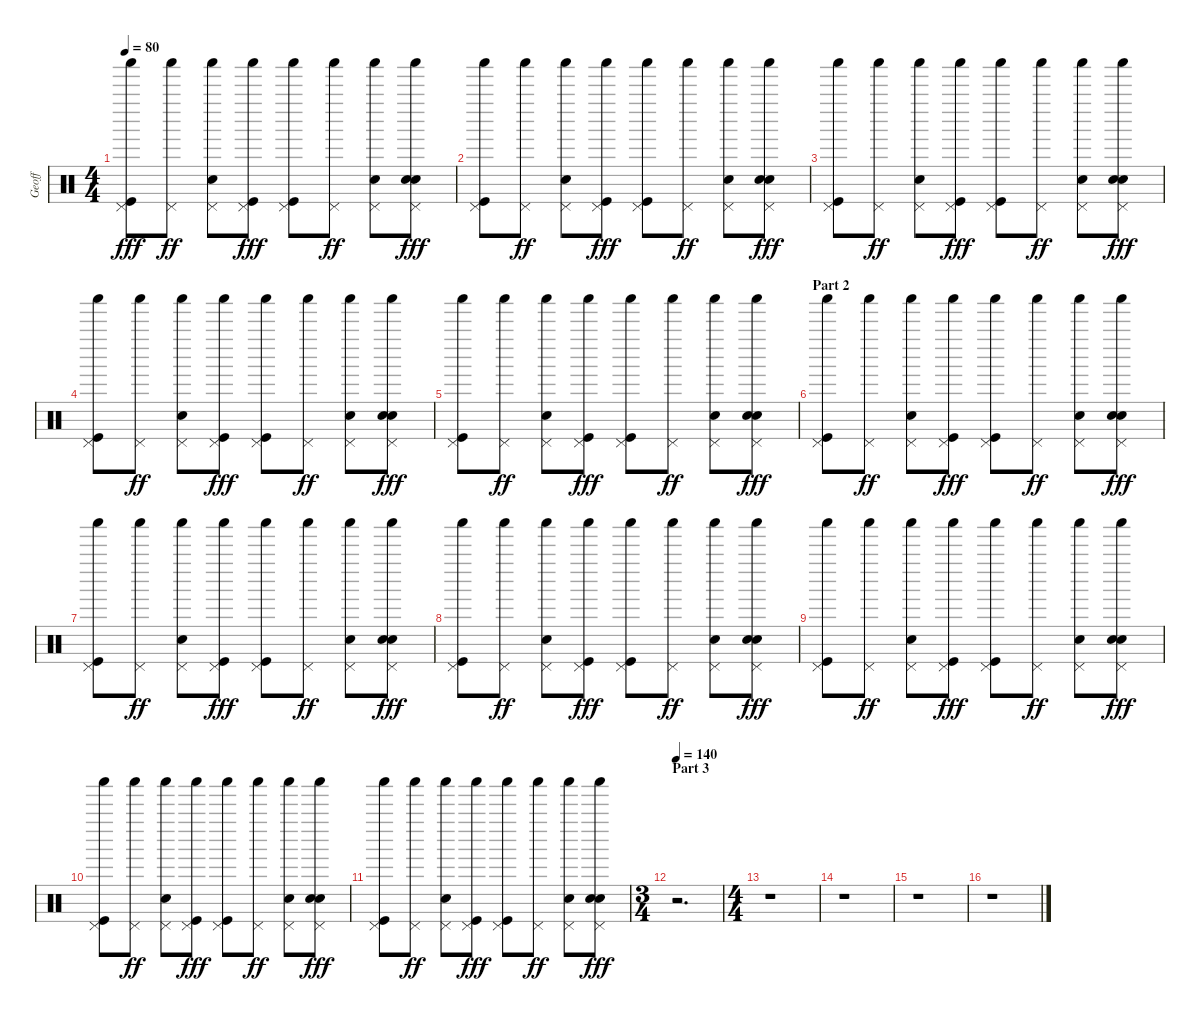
\track ("Geoff" "Geoff") {instrument percussion}
\staff {score}
\articulation defaults
\ts (4 4)
\tempo 80
\clef neutral
\ks c
("Shaker (hit)" "Pedal Hi-Hat (hit)" "Kick (hit)").8{dy fff} ("Shaker (hit)" "Pedal Hi-Hat (hit)").8{dy ff} ("Shaker (hit)" "Pedal Hi-Hat (hit)" "Snare (hit) 2").8 ("Shaker (hit)" "Pedal Hi-Hat (hit)" "Kick (hit)").8{dy fff} ("Shaker (hit)" "Pedal Hi-Hat (hit)" "Kick (hit)").8 ("Shaker (hit)" "Pedal Hi-Hat (hit)").8{dy ff} ("Shaker (hit)" "Pedal Hi-Hat (hit)" "Snare (hit) 2").8 ("Shaker (hit)" "Pedal Hi-Hat (hit)" "Hand Clap (hit)" "Hand Clap (hit)").8{dy fff} |
("Shaker (hit)" "Pedal Hi-Hat (hit)" "Kick (hit)").8 ("Shaker (hit)" "Pedal Hi-Hat (hit)").8{dy ff} ("Shaker (hit)" "Pedal Hi-Hat (hit)" "Snare (hit) 2").8 ("Shaker (hit)" "Pedal Hi-Hat (hit)" "Kick (hit)").8{dy fff} ("Shaker (hit)" "Pedal Hi-Hat (hit)" "Kick (hit)").8 ("Shaker (hit)" "Pedal Hi-Hat (hit)").8{dy ff} ("Shaker (hit)" "Pedal Hi-Hat (hit)" "Snare (hit) 2").8 ("Shaker (hit)" "Pedal Hi-Hat (hit)" "Hand Clap (hit)" "Hand Clap (hit)").8{dy fff} |
("Shaker (hit)" "Pedal Hi-Hat (hit)" "Kick (hit)").8 ("Shaker (hit)" "Pedal Hi-Hat (hit)").8{dy ff} ("Shaker (hit)" "Pedal Hi-Hat (hit)" "Snare (hit) 2").8 ("Shaker (hit)" "Pedal Hi-Hat (hit)" "Kick (hit)").8{dy fff} ("Shaker (hit)" "Pedal Hi-Hat (hit)" "Kick (hit)").8 ("Shaker (hit)" "Pedal Hi-Hat (hit)").8{dy ff} ("Shaker (hit)" "Pedal Hi-Hat (hit)" "Snare (hit) 2").8 ("Shaker (hit)" "Pedal Hi-Hat (hit)" "Hand Clap (hit)" "Hand Clap (hit)").8{dy fff} |
("Shaker (hit)" "Pedal Hi-Hat (hit)" "Kick (hit)").8 ("Shaker (hit)" "Pedal Hi-Hat (hit)").8{dy ff} ("Shaker (hit)" "Pedal Hi-Hat (hit)" "Snare (hit) 2").8 ("Shaker (hit)" "Pedal Hi-Hat (hit)" "Kick (hit)").8{dy fff} ("Shaker (hit)" "Pedal Hi-Hat (hit)" "Kick (hit)").8 ("Shaker (hit)" "Pedal Hi-Hat (hit)").8{dy ff} ("Shaker (hit)" "Pedal Hi-Hat (hit)" "Snare (hit) 2").8 ("Shaker (hit)" "Pedal Hi-Hat (hit)" "Hand Clap (hit)" "Hand Clap (hit)").8{dy fff} |
("Shaker (hit)" "Pedal Hi-Hat (hit)" "Kick (hit)").8 ("Shaker (hit)" "Pedal Hi-Hat (hit)").8{dy ff} ("Shaker (hit)" "Pedal Hi-Hat (hit)" "Snare (hit) 2").8 ("Shaker (hit)" "Pedal Hi-Hat (hit)" "Kick (hit)").8{dy fff} ("Shaker (hit)" "Pedal Hi-Hat (hit)" "Kick (hit)").8 ("Shaker (hit)" "Pedal Hi-Hat (hit)").8{dy ff} ("Shaker (hit)" "Pedal Hi-Hat (hit)" "Snare (hit) 2").8 ("Shaker (hit)" "Pedal Hi-Hat (hit)" "Hand Clap (hit)" "Hand Clap (hit)").8{dy fff} |
\section ("" "Part 2")
("Shaker (hit)" "Pedal Hi-Hat (hit)" "Kick (hit)").8 ("Shaker (hit)" "Pedal Hi-Hat (hit)").8{dy ff} ("Shaker (hit)" "Pedal Hi-Hat (hit)" "Snare (hit) 2").8 ("Shaker (hit)" "Pedal Hi-Hat (hit)" "Kick (hit)").8{dy fff} ("Shaker (hit)" "Pedal Hi-Hat (hit)" "Kick (hit)").8 ("Shaker (hit)" "Pedal Hi-Hat (hit)").8{dy ff} ("Shaker (hit)" "Pedal Hi-Hat (hit)" "Snare (hit) 2").8 ("Shaker (hit)" "Pedal Hi-Hat (hit)" "Hand Clap (hit)" "Hand Clap (hit)").8{dy fff} |
("Shaker (hit)" "Pedal Hi-Hat (hit)" "Kick (hit)").8 ("Shaker (hit)" "Pedal Hi-Hat (hit)").8{dy ff} ("Shaker (hit)" "Pedal Hi-Hat (hit)" "Snare (hit) 2").8 ("Shaker (hit)" "Pedal Hi-Hat (hit)" "Kick (hit)").8{dy fff} ("Shaker (hit)" "Pedal Hi-Hat (hit)" "Kick (hit)").8 ("Shaker (hit)" "Pedal Hi-Hat (hit)").8{dy ff} ("Shaker (hit)" "Pedal Hi-Hat (hit)" "Snare (hit) 2").8 ("Shaker (hit)" "Pedal Hi-Hat (hit)" "Hand Clap (hit)" "Hand Clap (hit)").8{dy fff} |
("Shaker (hit)" "Pedal Hi-Hat (hit)" "Kick (hit)").8 ("Shaker (hit)" "Pedal Hi-Hat (hit)").8{dy ff} ("Shaker (hit)" "Pedal Hi-Hat (hit)" "Snare (hit) 2").8 ("Shaker (hit)" "Pedal Hi-Hat (hit)" "Kick (hit)").8{dy fff} ("Shaker (hit)" "Pedal Hi-Hat (hit)" "Kick (hit)").8 ("Shaker (hit)" "Pedal Hi-Hat (hit)").8{dy ff} ("Shaker (hit)" "Pedal Hi-Hat (hit)" "Snare (hit) 2").8 ("Shaker (hit)" "Pedal Hi-Hat (hit)" "Hand Clap (hit)" "Hand Clap (hit)").8{dy fff} |
("Shaker (hit)" "Pedal Hi-Hat (hit)" "Kick (hit)").8 ("Shaker (hit)" "Pedal Hi-Hat (hit)").8{dy ff} ("Shaker (hit)" "Pedal Hi-Hat (hit)" "Snare (hit) 2").8 ("Shaker (hit)" "Pedal Hi-Hat (hit)" "Kick (hit)").8{dy fff} ("Shaker (hit)" "Pedal Hi-Hat (hit)" "Kick (hit)").8 ("Shaker (hit)" "Pedal Hi-Hat (hit)").8{dy ff} ("Shaker (hit)" "Pedal Hi-Hat (hit)" "Snare (hit) 2").8 ("Shaker (hit)" "Pedal Hi-Hat (hit)" "Hand Clap (hit)" "Hand Clap (hit)").8{dy fff} |
("Shaker (hit)" "Pedal Hi-Hat (hit)" "Kick (hit)").8 ("Shaker (hit)" "Pedal Hi-Hat (hit)").8{dy ff} ("Shaker (hit)" "Pedal Hi-Hat (hit)" "Snare (hit) 2").8 ("Shaker (hit)" "Pedal Hi-Hat (hit)" "Kick (hit)").8{dy fff} ("Shaker (hit)" "Pedal Hi-Hat (hit)" "Kick (hit)").8 ("Shaker (hit)" "Pedal Hi-Hat (hit)").8{dy ff} ("Shaker (hit)" "Pedal Hi-Hat (hit)" "Snare (hit) 2").8 ("Shaker (hit)" "Pedal Hi-Hat (hit)" "Hand Clap (hit)" "Hand Clap (hit)").8{dy fff} |
("Shaker (hit)" "Pedal Hi-Hat (hit)" "Kick (hit)").8 ("Shaker (hit)" "Pedal Hi-Hat (hit)").8{dy ff} ("Shaker (hit)" "Pedal Hi-Hat (hit)" "Snare (hit) 2").8 ("Shaker (hit)" "Pedal Hi-Hat (hit)" "Kick (hit)").8{dy fff} ("Shaker (hit)" "Pedal Hi-Hat (hit)" "Kick (hit)").8 ("Shaker (hit)" "Pedal Hi-Hat (hit)").8{dy ff} ("Shaker (hit)" "Pedal Hi-Hat (hit)" "Snare (hit) 2").8 ("Shaker (hit)" "Pedal Hi-Hat (hit)" "Hand Clap (hit)" "Hand Clap (hit)").8{dy fff} |
\ts (3 4)
\section ("" "Part 3")
\tempo 140
r.2{d} |
\ts (4 4)
r.1 |
r.1 |
r.1 |
r.1
